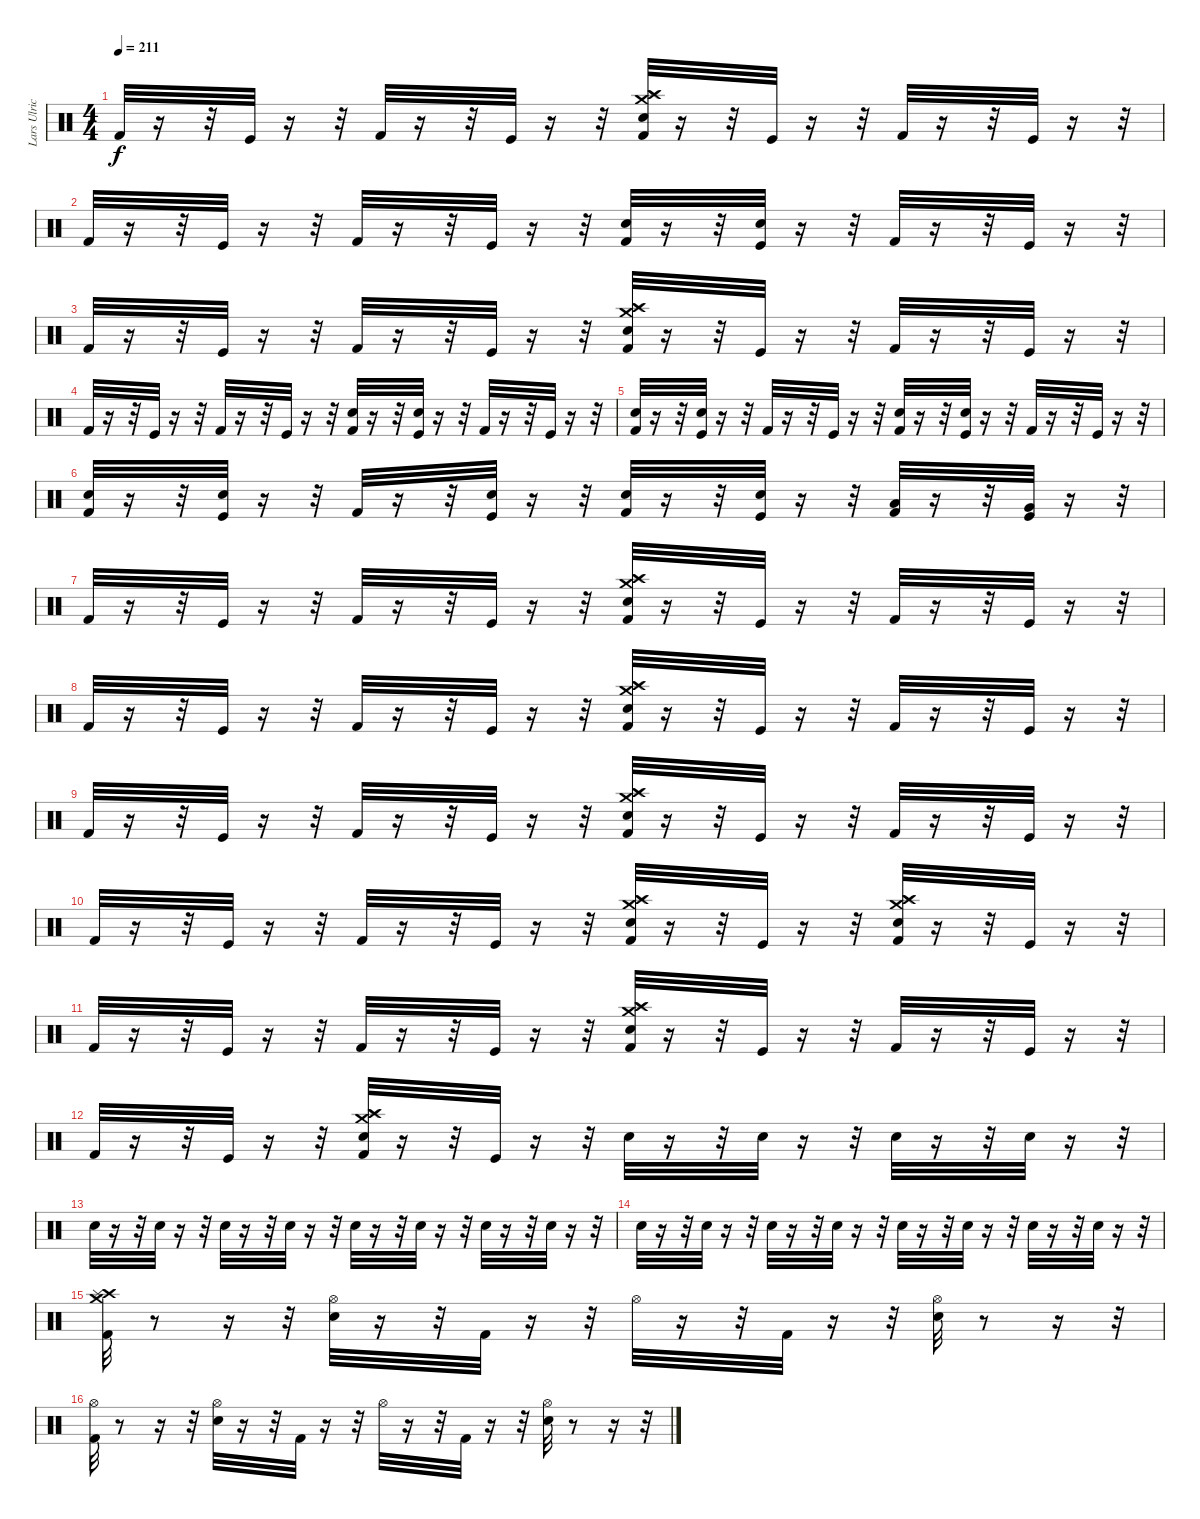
\track ("Lars Ulrich (Drums)" "Lars Ulric") {instrument percussion}
\staff {score}
\articulation defaults
\ts (4 4)
\tempo 211
\clef neutral
\ks c "Kick (hit) 2".32{dy f}
r.16 r.32 "Kick (hit)".32 r.16 r.32 "Kick (hit) 2".32 r.16 r.32 "Kick (hit)".32 r.16 r.32 ("Crash medium (hit)" "Splash (hit)" "Crash high (hit)" "Snare (hit) 2" "Kick (hit) 2").32 r.16 r.32 "Kick (hit)".32 r.16 r.32 "Kick (hit) 2".32 r.16 r.32 "Kick (hit)".32 r.16 r.32 |
"Kick (hit) 2".32 r.16 r.32 "Kick (hit)".32 r.16 r.32 "Kick (hit) 2".32 r.16 r.32 "Kick (hit)".32 r.16 r.32 ("Snare (hit) 2" "Kick (hit) 2").32 r.16 r.32 ("Snare (hit) 2" "Kick (hit)").32 r.16 r.32 "Kick (hit) 2".32 r.16 r.32 "Kick (hit)".32 r.16 r.32 |
"Kick (hit) 2".32 r.16 r.32 "Kick (hit)".32 r.16 r.32 "Kick (hit) 2".32 r.16 r.32 "Kick (hit)".32 r.16 r.32 ("Crash medium (hit)" "Splash (hit)" "Crash high (hit)" "Snare (hit) 2" "Kick (hit) 2").32 r.16 r.32 "Kick (hit)".32 r.16 r.32 "Kick (hit) 2".32 r.16 r.32 "Kick (hit)".32 r.16 r.32 |
"Kick (hit) 2".32 r.16 r.32 "Kick (hit)".32 r.16 r.32 "Kick (hit) 2".32 r.16 r.32 "Kick (hit)".32 r.16 r.32 ("Snare (hit) 2" "Kick (hit) 2").32 r.16 r.32 ("Snare (hit) 2" "Kick (hit)").32 r.16 r.32 "Kick (hit) 2".32 r.16 r.32 "Kick (hit)".32 r.16 r.32 |
("Snare (hit) 2" "Kick (hit) 2").32 r.16 r.32 ("Snare (hit) 2" "Kick (hit)").32 r.16 r.32 "Kick (hit) 2".32 r.16 r.32 "Kick (hit)".32 r.16 r.32 ("Snare (hit) 2" "Kick (hit) 2").32 r.16 r.32 ("Snare (hit) 2" "Kick (hit)").32 r.16 r.32 "Kick (hit) 2".32 r.16 r.32 "Kick (hit)".32 r.16 r.32 |
("Snare (hit) 2" "Kick (hit) 2").32 r.16 r.32 ("Snare (hit) 2" "Kick (hit)").32 r.16 r.32 "Kick (hit) 2".32 r.16 r.32 ("Snare (hit) 2" "Kick (hit)").32 r.16 r.32 ("Snare (hit) 2" "Kick (hit) 2").32 r.16 r.32 ("Snare (hit) 2" "Kick (hit)").32 r.16 r.32 ("Low Tom (hit)" "Kick (hit) 2").32 r.16 r.32 ("Very Low Tom (hit)" "Kick (hit)").32 r.16 r.32 |
"Kick (hit) 2".32 r.16 r.32 "Kick (hit)".32 r.16 r.32 "Kick (hit) 2".32 r.16 r.32 "Kick (hit)".32 r.16 r.32 ("Crash medium (hit)" "Splash (hit)" "Crash high (hit)" "Snare (hit) 2" "Kick (hit) 2").32 r.16 r.32 "Kick (hit)".32 r.16 r.32 "Kick (hit) 2".32 r.16 r.32 "Kick (hit)".32 r.16 r.32 |
"Kick (hit) 2".32 r.16 r.32 "Kick (hit)".32 r.16 r.32 "Kick (hit) 2".32 r.16 r.32 "Kick (hit)".32 r.16 r.32 ("Crash medium (hit)" "Splash (hit)" "Crash high (hit)" "Snare (hit) 2" "Kick (hit) 2").32 r.16 r.32 "Kick (hit)".32 r.16 r.32 "Kick (hit) 2".32 r.16 r.32 "Kick (hit)".32 r.16 r.32 |
"Kick (hit) 2".32 r.16 r.32 "Kick (hit)".32 r.16 r.32 "Kick (hit) 2".32 r.16 r.32 "Kick (hit)".32 r.16 r.32 ("Crash medium (hit)" "Splash (hit)" "Crash high (hit)" "Snare (hit) 2" "Kick (hit) 2").32 r.16 r.32 "Kick (hit)".32 r.16 r.32 "Kick (hit) 2".32 r.16 r.32 "Kick (hit)".32 r.16 r.32 |
"Kick (hit) 2".32 r.16 r.32 "Kick (hit)".32 r.16 r.32 "Kick (hit) 2".32 r.16 r.32 "Kick (hit)".32 r.16 r.32 ("Crash medium (hit)" "Splash (hit)" "Crash high (hit)" "Snare (hit) 2" "Kick (hit) 2").32 r.16 r.32 "Kick (hit)".32 r.16 r.32 ("Crash medium (hit)" "Splash (hit)" "Crash high (hit)" "Snare (hit) 2" "Kick (hit) 2").32 r.16 r.32 "Kick (hit)".32 r.16 r.32 |
"Kick (hit) 2".32 r.16 r.32 "Kick (hit)".32 r.16 r.32 "Kick (hit) 2".32 r.16 r.32 "Kick (hit)".32 r.16 r.32 ("Crash medium (hit)" "Splash (hit)" "Crash high (hit)" "Snare (hit) 2" "Kick (hit) 2").32 r.16 r.32 "Kick (hit)".32 r.16 r.32 "Kick (hit) 2".32 r.16 r.32 "Kick (hit)".32 r.16 r.32 |
"Kick (hit) 2".32 r.16 r.32 "Kick (hit)".32 r.16 r.32 ("Crash medium (hit)" "Splash (hit)" "Crash high (hit)" "Snare (hit) 2" "Kick (hit) 2").32 r.16 r.32 "Kick (hit)".32 r.16 r.32 "Snare (hit) 2".32 r.16 r.32 "Snare (hit) 2".32 r.16 r.32 "Snare (hit) 2".32 r.16 r.32 "Snare (hit) 2".32 r.16 r.32 |
"Snare (hit) 2".32 r.16 r.32 "Snare (hit) 2".32 r.16 r.32 "Snare (hit) 2".32 r.16 r.32 "Snare (hit) 2".32 r.16 r.32 "Snare (hit) 2".32 r.16 r.32 "Snare (hit) 2".32 r.16 r.32 "Snare (hit) 2".32 r.16 r.32 "Snare (hit) 2".32 r.16 r.32 |
"Snare (hit) 2".32 r.16 r.32 "Snare (hit) 2".32 r.16 r.32 "Snare (hit) 2".32 r.16 r.32 "Snare (hit) 2".32 r.16 r.32 "Snare (hit) 2".32 r.16 r.32 "Snare (hit) 2".32 r.16 r.32 "Snare (hit) 2".32 r.16 r.32 "Snare (hit) 2".32 r.16 r.32 |
("Kick (hit) 2" "Crash high (hit)" "Crash medium (hit)" "Splash (hit)").32 r.8 r.16 r.32 ("Snare (hit) 2" "Hi-Hat (open)").32 r.16 r.32 "Kick (hit) 2".32 r.16 r.32 "Hi-Hat (open)".32 r.16 r.32 "Kick (hit) 2".32 r.16 r.32 ("Snare (hit) 2" "Hi-Hat (open)").32 r.8 r.16 r.32 |
("Kick (hit) 2" "Hi-Hat (open)").32 r.8 r.16 r.32 ("Snare (hit) 2" "Hi-Hat (open)").32 r.16 r.32 "Kick (hit) 2".32 r.16 r.32 "Hi-Hat (open)".32 r.16 r.32 "Kick (hit) 2".32 r.16 r.32 ("Snare (hit) 2" "Hi-Hat (open)").32 r.8 r.16 r.32
